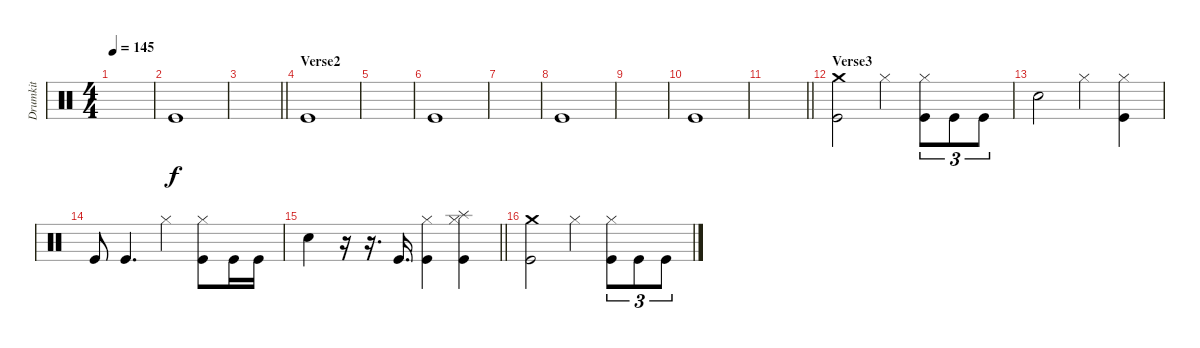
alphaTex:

\track ("Drumkit" "Drumkit") {instrument percussion}
\staff {score}
\articulation defaults
\ts (4 4)
\tempo 145
\clef neutral
\ks c
|
"Kick (hit)".1 |
\barLineRight lightlight
|
\section ("" "Verse2")
"Kick (hit)".1 |
|
"Kick (hit)".1 |
|
"Kick (hit)".1 |
|
"Kick (hit)".1 |
\barLineRight lightlight
|
\section ("" "Verse3")
("Kick (hit)" "Crash medium (hit)").2 "Hi-Hat (closed)".4 ("Kick (hit)" "Hi-Hat (closed)").8{tu (3 2)} "Kick (hit)".8{tu (3 2)} "Kick (hit)".8{tu (3 2)} |
"Snare (hit) 2".2 "Hi-Hat (closed)".4 ("Hi-Hat (closed)" "Kick (hit)").4 |
"Kick (hit)".8 "Kick (hit)".4{d} "Hi-Hat (closed)".4 ("Hi-Hat (closed)" "Kick (hit)").8 "Kick (hit)".16 "Kick (hit)".16 |
\barLineRight lightlight "Snare (hit) 2".4
r.16 r.16{d} "Kick (hit)".16{d} ("Hi-Hat (closed)" "Kick (hit)").4 ("Hi-Hat (closed)" "Kick (hit)" "Splash (hit)").4 |
("Kick (hit)" "Crash medium (hit)").2 "Hi-Hat (closed)".4 ("Hi-Hat (closed)" "Kick (hit)").8{tu (3 2)} "Kick (hit)".8{tu (3 2)} "Kick (hit)".8{tu (3 2)}
